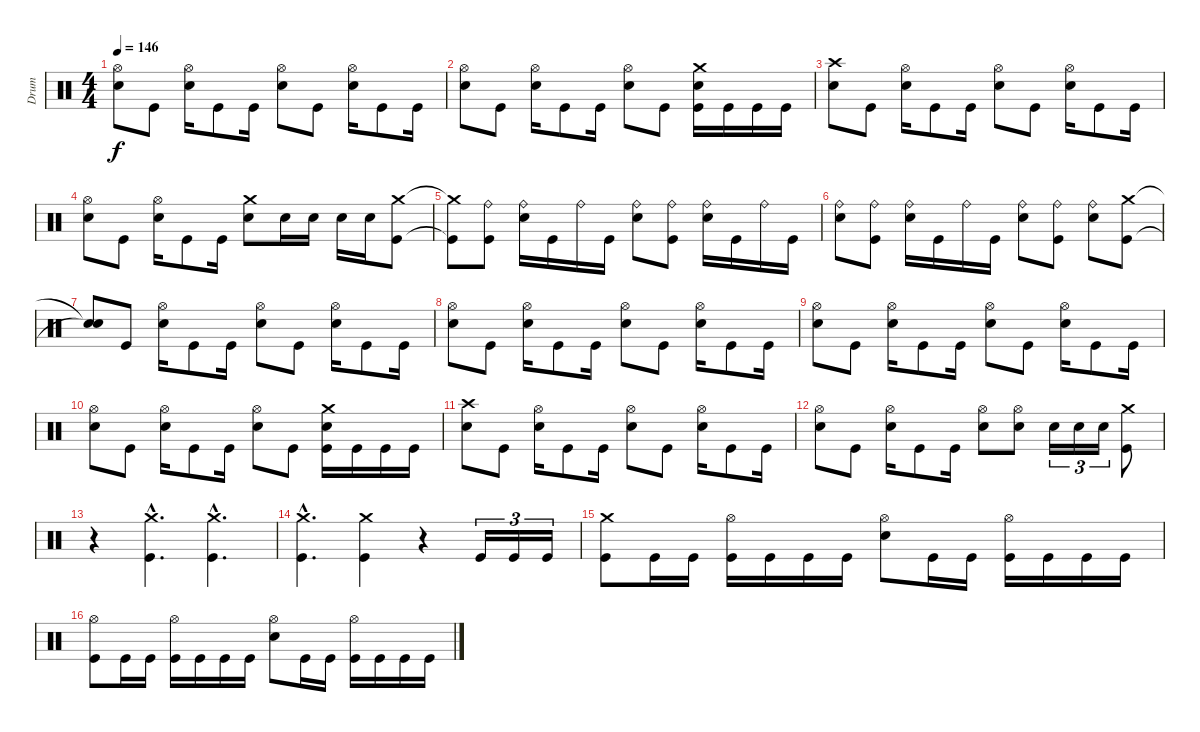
\track ("Drum" "Drum") {instrument percussion}
\staff {score}
\articulation defaults
\ts (4 4)
\tempo 146
\clef neutral
\ks c
("Electric Snare (hit)" "Hi-Hat (open)").8{dy f} "Kick (hit)".8 ("Electric Snare (hit)" "Hi-Hat (open)").16 "Kick (hit)".8 "Kick (hit)".16 ("Electric Snare (hit)" "Hi-Hat (open)").8 "Kick (hit)".8 ("Electric Snare (hit)" "Hi-Hat (open)").16 "Kick (hit)".8 "Kick (hit)".16 |
("Electric Snare (hit)" "Hi-Hat (open)").8 "Kick (hit)".8 ("Electric Snare (hit)" "Hi-Hat (open)").16 "Kick (hit)".8 "Kick (hit)".16 ("Electric Snare (hit)" "Hi-Hat (open)").8 "Kick (hit)".8 ("Kick (hit)" "Electric Snare (hit)" "Crash medium (hit)").16 "Kick (hit)".16 "Kick (hit)".16 "Kick (hit)".16 |
("Electric Snare (hit)" "Crash high (hit)").8 "Kick (hit)".8 ("Electric Snare (hit)" "Hi-Hat (open)").16 "Kick (hit)".8 "Kick (hit)".16 ("Electric Snare (hit)" "Hi-Hat (open)").8 "Kick (hit)".8 ("Electric Snare (hit)" "Hi-Hat (open)").16 "Kick (hit)".8 "Kick (hit)".16 |
("Electric Snare (hit)" "Hi-Hat (open)").8 "Kick (hit)".8 ("Electric Snare (hit)" "Hi-Hat (open)").16 "Kick (hit)".8 "Kick (hit)".16 ("Electric Snare (hit)" "Crash medium (hit)").8 "Electric Snare (hit)".16 "Electric Snare (hit)".16 "Electric Snare (hit)".16 "Electric Snare (hit)".16 ("Kick (hit)" "Crash medium (hit)").8 |
("Kick (hit)"{t} "Crash medium (hit)"{t}).8 ("Kick (hit)" "Ride (bell)").8 ("Electric Snare (hit)" "Ride (bell)").16 "Kick (hit)".16 "Ride (bell)".16 "Kick (hit)".16 ("Electric Snare (hit)" "Ride (bell)").8 ("Kick (hit)" "Ride (bell)").8 ("Electric Snare (hit)" "Ride (bell)").16 "Kick (hit)".16 "Ride (bell)".16 "Kick (hit)".16 |
("Electric Snare (hit)" "Ride (bell)").8 ("Kick (hit)" "Ride (bell)").8 ("Electric Snare (hit)" "Ride (bell)").16 "Kick (hit)".16 "Ride (bell)".16 "Kick (hit)".16 ("Electric Snare (hit)" "Ride (bell)").8 ("Kick (hit)" "Ride (bell)").8 ("Electric Snare (hit)" "Ride (bell)").8 ("Kick (hit)" "Crash medium (hit)").8 |
("Snare (hit)"{t} "Snare (hit)"{t}).8 "Kick (hit)".8 ("Electric Snare (hit)" "Hi-Hat (open)").16 "Kick (hit)".8 "Kick (hit)".16 ("Electric Snare (hit)" "Hi-Hat (open)").8 "Kick (hit)".8 ("Electric Snare (hit)" "Hi-Hat (open)").16 "Kick (hit)".8 "Kick (hit)".16 |
("Electric Snare (hit)" "Hi-Hat (open)").8 "Kick (hit)".8 ("Electric Snare (hit)" "Hi-Hat (open)").16 "Kick (hit)".8 "Kick (hit)".16 ("Electric Snare (hit)" "Hi-Hat (open)").8 "Kick (hit)".8 ("Electric Snare (hit)" "Hi-Hat (open)").16 "Kick (hit)".8 "Kick (hit)".16 |
("Electric Snare (hit)" "Hi-Hat (open)").8 "Kick (hit)".8 ("Electric Snare (hit)" "Hi-Hat (open)").16 "Kick (hit)".8 "Kick (hit)".16 ("Electric Snare (hit)" "Hi-Hat (open)").8 "Kick (hit)".8 ("Electric Snare (hit)" "Hi-Hat (open)").16 "Kick (hit)".8 "Kick (hit)".16 |
("Electric Snare (hit)" "Hi-Hat (open)").8 "Kick (hit)".8 ("Electric Snare (hit)" "Hi-Hat (open)").16 "Kick (hit)".8 "Kick (hit)".16 ("Electric Snare (hit)" "Hi-Hat (open)").8 "Kick (hit)".8 ("Kick (hit)" "Electric Snare (hit)" "Crash medium (hit)").16 "Kick (hit)".16 "Kick (hit)".16 "Kick (hit)".16 |
("Electric Snare (hit)" "Crash high (hit)").8 "Kick (hit)".8 ("Electric Snare (hit)" "Hi-Hat (open)").16 "Kick (hit)".8 "Kick (hit)".16 ("Electric Snare (hit)" "Hi-Hat (open)").8 "Kick (hit)".8 ("Electric Snare (hit)" "Hi-Hat (open)").16 "Kick (hit)".8 "Kick (hit)".16 |
("Electric Snare (hit)" "Hi-Hat (open)").8 "Kick (hit)".8 ("Electric Snare (hit)" "Hi-Hat (open)").16 "Kick (hit)".8 "Kick (hit)".16 ("Electric Snare (hit)" "Hi-Hat (open)").8 ("Electric Snare (hit)" "Hi-Hat (open)").8 "Electric Snare (hit)".16{tu (3 2)} "Electric Snare (hit)".16{tu (3 2)} "Electric Snare (hit)".16{tu (3 2)} ("Kick (hit)" "Crash medium (hit)").8 |
r.4 ("Kick (hit)"{hac} "Crash medium (hit)"{hac}).4{d} ("Kick (hit)"{hac} "Crash medium (hit)"{hac}).4{d} |
("Kick (hit)"{hac} "Crash medium (hit)"{hac}).4{d} ("Kick (hit)" "Crash medium (hit)").4 r.4 "Kick (hit)".16{tu (3 2)} "Kick (hit)".16{tu (3 2)} "Kick (hit)".16{tu (3 2)} |
("Kick (hit)" "Crash medium (hit)").8 "Kick (hit)".16 "Kick (hit)".16 ("Kick (hit)" "Hi-Hat (open)").16 "Kick (hit)".16 "Kick (hit)".16 "Kick (hit)".16 ("Electric Snare (hit)" "Hi-Hat (open)").8 "Kick (hit)".16 "Kick (hit)".16 ("Kick (hit)" "Hi-Hat (open)").16 "Kick (hit)".16 "Kick (hit)".16 "Kick (hit)".16 |
("Kick (hit)" "Hi-Hat (open)").8 "Kick (hit)".16 "Kick (hit)".16 ("Kick (hit)" "Hi-Hat (open)").16 "Kick (hit)".16 "Kick (hit)".16 "Kick (hit)".16 ("Electric Snare (hit)" "Hi-Hat (open)").8 "Kick (hit)".16 "Kick (hit)".16 ("Kick (hit)" "Hi-Hat (open)").16 "Kick (hit)".16 "Kick (hit)".16 "Kick (hit)".16
